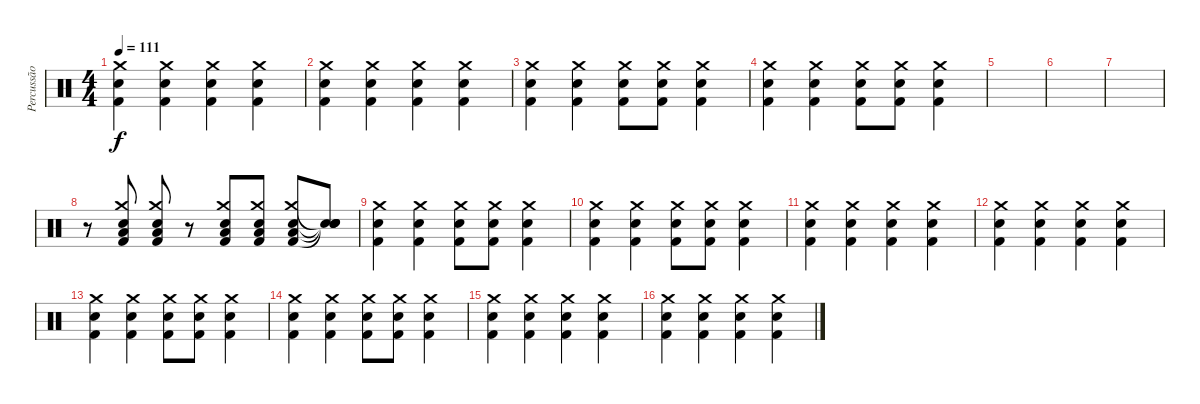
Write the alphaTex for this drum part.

\track ("Percussão" "Percussão") {instrument percussion}
\staff {score}
\articulation defaults
\ts (4 4)
\tempo 111
\clef neutral
\ks c
("Kick (hit) 2" "Electric Snare (hit)" "Crash medium (hit)").4{dy f} ("Kick (hit) 2" "Electric Snare (hit)" "Crash medium (hit)").4 ("Kick (hit) 2" "Electric Snare (hit)" "Crash medium (hit)").4 ("Kick (hit) 2" "Electric Snare (hit)" "Crash medium (hit)").4 |
("Kick (hit) 2" "Electric Snare (hit)" "Crash medium (hit)").4 ("Kick (hit) 2" "Electric Snare (hit)" "Crash medium (hit)").4 ("Kick (hit) 2" "Electric Snare (hit)" "Crash medium (hit)").4 ("Kick (hit) 2" "Electric Snare (hit)" "Crash medium (hit)").4 |
("Kick (hit) 2" "Electric Snare (hit)" "Crash medium (hit)").4 ("Kick (hit) 2" "Electric Snare (hit)" "Crash medium (hit)").4 ("Kick (hit) 2" "Electric Snare (hit)" "Crash medium (hit)").8 ("Kick (hit) 2" "Electric Snare (hit)" "Crash medium (hit)").8 ("Kick (hit) 2" "Electric Snare (hit)" "Crash medium (hit)").4 |
("Kick (hit) 2" "Electric Snare (hit)" "Crash medium (hit)").4 ("Kick (hit) 2" "Electric Snare (hit)" "Crash medium (hit)").4 ("Kick (hit) 2" "Electric Snare (hit)" "Crash medium (hit)").8 ("Kick (hit) 2" "Electric Snare (hit)" "Crash medium (hit)").8 ("Kick (hit) 2" "Electric Snare (hit)" "Crash medium (hit)").4 |
|
|
|
r.8 ("Kick (hit) 2" "Low Tom (hit)" "Electric Snare (hit)" "Crash medium (hit)").8 ("Kick (hit) 2" "Low Tom (hit)" "Electric Snare (hit)" "Crash medium (hit)").8 r.8 ("Kick (hit) 2" "Low Tom (hit)" "Electric Snare (hit)" "Crash medium (hit)").8 ("Kick (hit) 2" "Low Tom (hit)" "Electric Snare (hit)" "Crash medium (hit)").8 ("Kick (hit) 2" "Low Tom (hit)" "Electric Snare (hit)" "Crash medium (hit)").8 ("Snare (hit)"{t} "Snare (hit)"{t} "Snare (hit)"{t} "Snare (hit)"{t}).8 |
("Kick (hit) 2" "Electric Snare (hit)" "Crash medium (hit)").4 ("Kick (hit) 2" "Electric Snare (hit)" "Crash medium (hit)").4 ("Kick (hit) 2" "Electric Snare (hit)" "Crash medium (hit)").8 ("Kick (hit) 2" "Electric Snare (hit)" "Crash medium (hit)").8 ("Kick (hit) 2" "Electric Snare (hit)" "Crash medium (hit)").4 |
("Kick (hit) 2" "Electric Snare (hit)" "Crash medium (hit)").4 ("Kick (hit) 2" "Electric Snare (hit)" "Crash medium (hit)").4 ("Kick (hit) 2" "Electric Snare (hit)" "Crash medium (hit)").8 ("Kick (hit) 2" "Electric Snare (hit)" "Crash medium (hit)").8 ("Kick (hit) 2" "Electric Snare (hit)" "Crash medium (hit)").4 |
("Kick (hit) 2" "Electric Snare (hit)" "Crash medium (hit)").4 ("Kick (hit) 2" "Electric Snare (hit)" "Crash medium (hit)").4 ("Kick (hit) 2" "Electric Snare (hit)" "Crash medium (hit)").4 ("Kick (hit) 2" "Electric Snare (hit)" "Crash medium (hit)").4 |
("Kick (hit) 2" "Electric Snare (hit)" "Crash medium (hit)").4 ("Kick (hit) 2" "Electric Snare (hit)" "Crash medium (hit)").4 ("Kick (hit) 2" "Electric Snare (hit)" "Crash medium (hit)").4 ("Kick (hit) 2" "Electric Snare (hit)" "Crash medium (hit)").4 |
("Kick (hit) 2" "Electric Snare (hit)" "Crash medium (hit)").4 ("Kick (hit) 2" "Electric Snare (hit)" "Crash medium (hit)").4 ("Kick (hit) 2" "Electric Snare (hit)" "Crash medium (hit)").8 ("Kick (hit) 2" "Electric Snare (hit)" "Crash medium (hit)").8 ("Kick (hit) 2" "Electric Snare (hit)" "Crash medium (hit)").4 |
("Kick (hit) 2" "Electric Snare (hit)" "Crash medium (hit)").4 ("Kick (hit) 2" "Electric Snare (hit)" "Crash medium (hit)").4 ("Kick (hit) 2" "Electric Snare (hit)" "Crash medium (hit)").8 ("Kick (hit) 2" "Electric Snare (hit)" "Crash medium (hit)").8 ("Kick (hit) 2" "Electric Snare (hit)" "Crash medium (hit)").4 |
("Kick (hit) 2" "Electric Snare (hit)" "Crash medium (hit)").4 ("Kick (hit) 2" "Electric Snare (hit)" "Crash medium (hit)").4 ("Kick (hit) 2" "Electric Snare (hit)" "Crash medium (hit)").4 ("Kick (hit) 2" "Electric Snare (hit)" "Crash medium (hit)").4 |
("Kick (hit) 2" "Electric Snare (hit)" "Crash medium (hit)").4 ("Kick (hit) 2" "Electric Snare (hit)" "Crash medium (hit)").4 ("Kick (hit) 2" "Electric Snare (hit)" "Crash medium (hit)").4 ("Kick (hit) 2" "Electric Snare (hit)" "Crash medium (hit)").4
